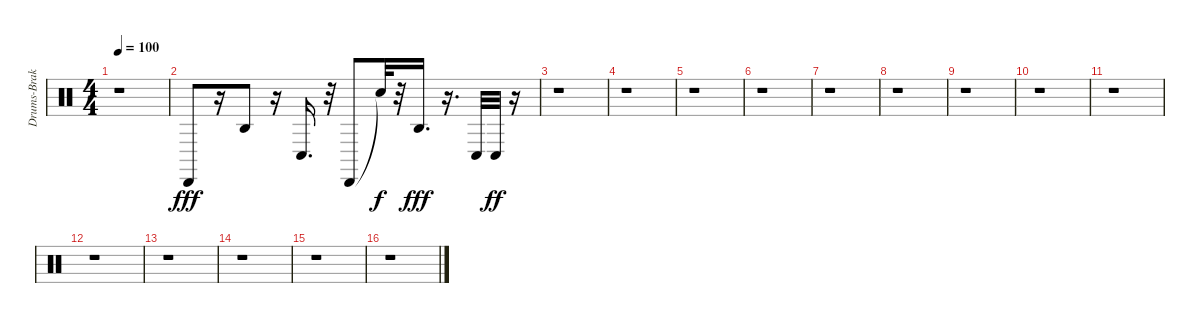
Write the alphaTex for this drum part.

\track ("Drums-Brakes" "Drums-Brak") {instrument percussion}
\staff {score}
\articulation defaults
\ts (4 4)
\tempo 100
\clef neutral
\ks c
r.1{dy fff} |
"Cabasa (hit)".8 r.16 "Agogo high (hit)".8 r.16 "Conga low (hit)".16{d} r.32 "Cabasa (hit)".8 "Snare (hit)"{t}.32{dy f} r.32 "Agogo high (hit)".16{d dy fff} r.16{d} "Conga low (hit)".32 "Conga low (hit)".32{dy ff} r.16 |
r.1 |
r.1 |
r.1 |
r.1 |
r.1 |
r.1 |
r.1 |
r.1 |
r.1 |
r.1 |
r.1 |
r.1 |
r.1 |
r.1
